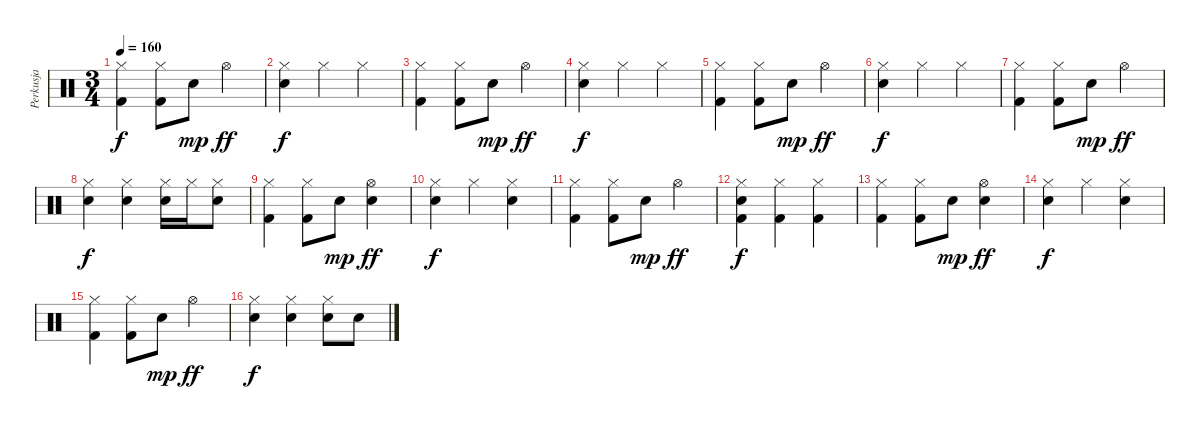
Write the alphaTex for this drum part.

\track ("Perkusja" "Perkusja") {instrument percussion}
\staff {score}
\articulation defaults
\ts (3 4)
\tempo 160
\clef neutral
\ks c
("Hi-Hat (closed)" "Kick (hit) 2").4{dy f} ("Hi-Hat (closed)" "Kick (hit) 2").8 "Snare (hit) 2".8{dy mp} "Hi-Hat (open)".4{dy ff} |
("Hi-Hat (closed)" "Snare (hit) 2").4{dy f} "Hi-Hat (closed)".4 "Hi-Hat (closed)".4 |
("Hi-Hat (closed)" "Kick (hit) 2").4 ("Hi-Hat (closed)" "Kick (hit) 2").8 "Snare (hit) 2".8{dy mp} "Hi-Hat (open)".4{dy ff} |
("Hi-Hat (closed)" "Snare (hit) 2").4{dy f} "Hi-Hat (closed)".4 "Hi-Hat (closed)".4 |
("Hi-Hat (closed)" "Kick (hit) 2").4 ("Hi-Hat (closed)" "Kick (hit) 2").8 "Snare (hit) 2".8{dy mp} "Hi-Hat (open)".4{dy ff} |
("Hi-Hat (closed)" "Snare (hit) 2").4{dy f} "Hi-Hat (closed)".4 "Hi-Hat (closed)".4 |
("Hi-Hat (closed)" "Kick (hit) 2").4 ("Hi-Hat (closed)" "Kick (hit) 2").8 "Snare (hit) 2".8{dy mp} "Hi-Hat (open)".4{dy ff} |
("Hi-Hat (closed)" "Snare (hit) 2").4{dy f} ("Hi-Hat (closed)" "Snare (hit) 2").4 ("Hi-Hat (closed)" "Snare (hit) 2").16 "Hi-Hat (closed)".16 ("Hi-Hat (closed)" "Snare (hit) 2").8 |
("Hi-Hat (closed)" "Kick (hit) 2").4 ("Hi-Hat (closed)" "Kick (hit) 2").8 "Snare (hit) 2".8{dy mp} ("Hi-Hat (open)" "Hand Clap (hit)").4{dy ff} |
("Hi-Hat (closed)" "Snare (hit) 2").4{dy f} "Hi-Hat (closed)".4 ("Hi-Hat (closed)" "Hand Clap (hit)").4 |
("Hi-Hat (closed)" "Kick (hit) 2").4 ("Hi-Hat (closed)" "Kick (hit) 2").8 "Snare (hit) 2".8{dy mp} "Hi-Hat (open)".4{dy ff} |
("Hi-Hat (closed)" "Snare (hit) 2" "Kick (hit) 2").4{dy f} ("Hi-Hat (closed)" "Kick (hit) 2").4 ("Hi-Hat (closed)" "Kick (hit) 2").4 |
("Hi-Hat (closed)" "Kick (hit) 2").4 ("Hi-Hat (closed)" "Kick (hit) 2").8 "Snare (hit) 2".8{dy mp} ("Hi-Hat (open)" "Hand Clap (hit)").4{dy ff} |
("Hi-Hat (closed)" "Snare (hit) 2").4{dy f} "Hi-Hat (closed)".4 ("Hi-Hat (closed)" "Hand Clap (hit)").4 |
("Hi-Hat (closed)" "Kick (hit) 2").4 ("Hi-Hat (closed)" "Kick (hit) 2").8 "Snare (hit) 2".8{dy mp} "Hi-Hat (open)".4{dy ff} |
("Hi-Hat (closed)" "Snare (hit) 2").4{dy f} ("Hi-Hat (closed)" "Snare (hit) 2").4 ("Hi-Hat (closed)" "Snare (hit) 2").8 "Snare (hit) 2".8
